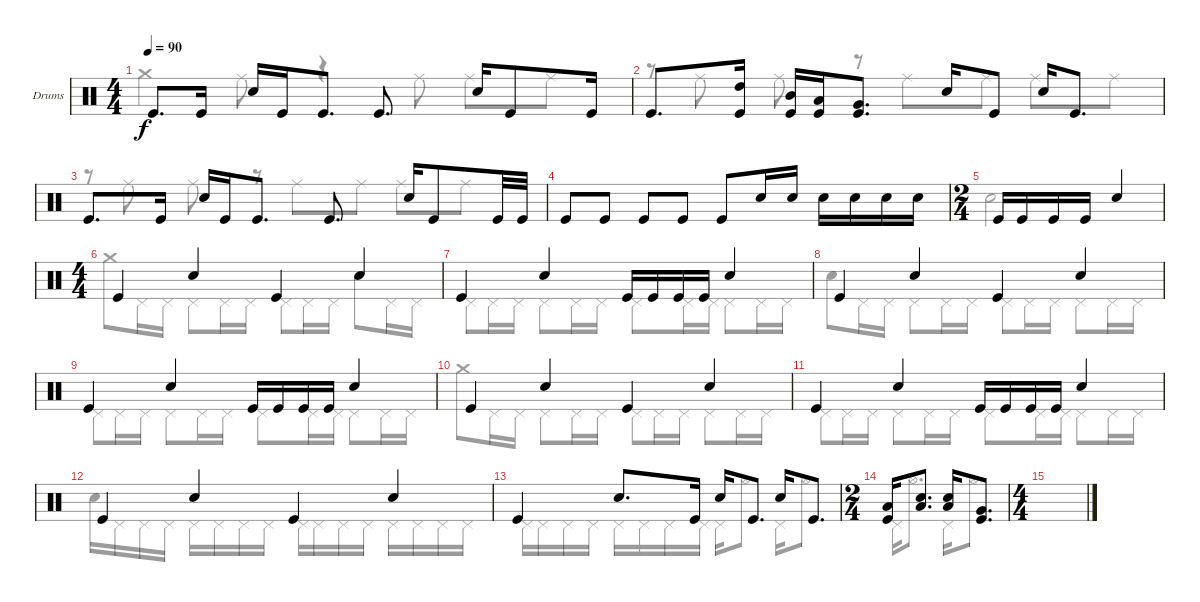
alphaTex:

\defaultSystemsLayout 4
\bracketExtendMode groupsimilarinstruments
\firstSystemTrackNameOrientation horizontal
\otherSystemsTrackNameOrientation horizontal
\track ("Drumkit" "Drums") {instrument percussion}
\staff {score}
\articulation defaults
\voice
\ts (4 4)
\tempo 90
\clef neutral
\ks c "Kick (hit)".8{d dy f} "Kick (hit)".16 "Snare (hit) 2".16 "Kick (hit)".16 "Kick (hit)".8{d} "Kick (hit)".8{d} "Snare (hit) 2".16 "Kick (hit)".8 "Kick (hit)".16
|
"Kick (hit)".8{d} ("Kick (hit)" "High Tom (hit)").16 ("Kick (hit)" "Mid Tom (hit)").16 ("Low Tom (hit)" "Kick (hit)").16 ("Kick (hit)" "Very Low Tom (hit)").8{d} "Snare (hit) 2".16 "Kick (hit)".8 "Snare (hit) 2".16 "Kick (hit)".8{d} |
"Kick (hit)".8{d} "Kick (hit)".16 "Snare (hit) 2".16 "Kick (hit)".16 "Kick (hit)".8{d} "Kick (hit)".8{d} "Snare (hit) 2".16 "Kick (hit)".8 "Kick (hit)".32 "Kick (hit)".32 |
"Kick (hit)".8 "Kick (hit)".8 "Kick (hit)".8 "Kick (hit)".8 "Kick (hit)".8 "Snare (hit) 2".16 "Snare (hit) 2".16 "Snare (hit) 2".16 "Snare (hit) 2".16 "Snare (hit) 2".16 "Snare (hit) 2".16 |
\ts (2 4)
"Kick (hit)".16 "Kick (hit)".16 "Kick (hit)".16 "Kick (hit)".16 "Snare (hit) 2".4 |
\ts (4 4)
"Kick (hit)".4 "Snare (hit) 2".4 "Kick (hit)".4 "Snare (hit) 2".4 |
"Kick (hit)".4 "Snare (hit) 2".4 "Kick (hit)".16 "Kick (hit)".16 "Kick (hit)".16 "Kick (hit)".16 "Snare (hit) 2".4 |
"Kick (hit)".4 "Snare (hit) 2".4 "Kick (hit)".4 "Snare (hit) 2".4 |
"Kick (hit)".4 "Snare (hit) 2".4 "Kick (hit)".16 "Kick (hit)".16 "Kick (hit)".16 "Kick (hit)".16 "Snare (hit) 2".4 |
"Kick (hit)".4 "Snare (hit) 2".4 "Kick (hit)".4 "Snare (hit) 2".4 |
"Kick (hit)".4 "Snare (hit) 2".4 "Kick (hit)".16 "Kick (hit)".16 "Kick (hit)".16 "Kick (hit)".16 "Snare (hit) 2".4 |
"Kick (hit)".4 "Snare (hit) 2".4 "Kick (hit)".4 "Snare (hit) 2".4 |
"Kick (hit)".4 "Snare (hit) 2".8{d} "Kick (hit)".16 "Snare (hit) 2".16 "Kick (hit)".8{d} "Snare (hit) 2".16 "Kick (hit)".8{d} |
\ts (2 4)
("Kick (hit)" "Low Tom (hit)").16 ("Low Tom (hit)" "Snare (hit) 2").8{d} ("Snare (hit) 2" "Low Tom (hit)").16 ("Kick (hit)" "Very Low Tom (hit)").8{d} |
\ts (4 4)
|
\voice
\clef neutral
\ottava regular
\simile none
\ks c "Crash medium (hit)".4{dy f} "Ride (middle)".8
r.4 "Ride (middle)".8 "Ride (middle)".8 "Ride (middle)".8 |
r.8 "Ride (middle)".8 "Ride (middle)".8 r.8 "Ride (middle)".8 "Ride (middle)".8 "Ride (middle)".8 "Ride (middle)".8 |
r.8 "Ride (middle)".8 "Ride (middle)".8 r.8 "Ride (middle)".8 "Ride (middle)".8 "Ride (middle)".8 "Ride (middle)".8 |
|
"Snare (hit) 2".2 |
"Crash medium (hit)".8 "Pedal Hi-Hat (hit)".16 "Pedal Hi-Hat (hit)".16 "Pedal Hi-Hat (hit)".8 "Pedal Hi-Hat (hit)".16 "Pedal Hi-Hat (hit)".16 "Pedal Hi-Hat (hit)".8 "Pedal Hi-Hat (hit)".16 "Pedal Hi-Hat (hit)".16 "Snare (hit) 2".8 "Pedal Hi-Hat (hit)".16 "Pedal Hi-Hat (hit)".16 |
"Pedal Hi-Hat (hit)".8 "Pedal Hi-Hat (hit)".16 "Pedal Hi-Hat (hit)".16 "Pedal Hi-Hat (hit)".8 "Pedal Hi-Hat (hit)".16 "Pedal Hi-Hat (hit)".16 "Pedal Hi-Hat (hit)".8 "Pedal Hi-Hat (hit)".16 "Pedal Hi-Hat (hit)".16 "Pedal Hi-Hat (hit)".8 "Pedal Hi-Hat (hit)".16 "Pedal Hi-Hat (hit)".16 |
"Snare (hit) 2".8 "Pedal Hi-Hat (hit)".16 "Pedal Hi-Hat (hit)".16 "Pedal Hi-Hat (hit)".8 "Pedal Hi-Hat (hit)".16 "Pedal Hi-Hat (hit)".16 "Pedal Hi-Hat (hit)".8 "Pedal Hi-Hat (hit)".16 "Pedal Hi-Hat (hit)".16 "Pedal Hi-Hat (hit)".8 "Pedal Hi-Hat (hit)".16 "Pedal Hi-Hat (hit)".16 |
"Pedal Hi-Hat (hit)".8 "Pedal Hi-Hat (hit)".16 "Pedal Hi-Hat (hit)".16 "Pedal Hi-Hat (hit)".8 "Pedal Hi-Hat (hit)".16 "Pedal Hi-Hat (hit)".16 "Pedal Hi-Hat (hit)".8 "Pedal Hi-Hat (hit)".16 "Pedal Hi-Hat (hit)".16 "Pedal Hi-Hat (hit)".8 "Pedal Hi-Hat (hit)".16 "Pedal Hi-Hat (hit)".16 |
"Crash medium (hit)".8 "Pedal Hi-Hat (hit)".16 "Pedal Hi-Hat (hit)".16 "Pedal Hi-Hat (hit)".8 "Pedal Hi-Hat (hit)".16 "Pedal Hi-Hat (hit)".16 "Pedal Hi-Hat (hit)".8 "Pedal Hi-Hat (hit)".16 "Pedal Hi-Hat (hit)".16 "Pedal Hi-Hat (hit)".8 "Pedal Hi-Hat (hit)".16 "Pedal Hi-Hat (hit)".16 |
"Pedal Hi-Hat (hit)".8 "Pedal Hi-Hat (hit)".16 "Pedal Hi-Hat (hit)".16 "Pedal Hi-Hat (hit)".8 "Pedal Hi-Hat (hit)".16 "Pedal Hi-Hat (hit)".16 "Pedal Hi-Hat (hit)".8 "Pedal Hi-Hat (hit)".16 "Pedal Hi-Hat (hit)".16 "Pedal Hi-Hat (hit)".8 "Pedal Hi-Hat (hit)".16 "Pedal Hi-Hat (hit)".16 |
"Snare (hit) 2".16 "Pedal Hi-Hat (hit)".16 "Pedal Hi-Hat (hit)".16 "Pedal Hi-Hat (hit)".16 "Pedal Hi-Hat (hit)".16 "Pedal Hi-Hat (hit)".16 "Pedal Hi-Hat (hit)".16 "Pedal Hi-Hat (hit)".16 "Pedal Hi-Hat (hit)".16 "Pedal Hi-Hat (hit)".16 "Pedal Hi-Hat (hit)".16 "Pedal Hi-Hat (hit)".16 "Pedal Hi-Hat (hit)".16 "Pedal Hi-Hat (hit)".16 "Pedal Hi-Hat (hit)".16 "Pedal Hi-Hat (hit)".16 |
"Pedal Hi-Hat (hit)".16 "Pedal Hi-Hat (hit)".16 "Pedal Hi-Hat (hit)".16 "Pedal Hi-Hat (hit)".16 "Pedal Hi-Hat (hit)".16 "Pedal Hi-Hat (hit)".16 "Pedal Hi-Hat (hit)".16 "Pedal Hi-Hat (hit)".16 "Pedal Hi-Hat (hit)".16 "Hi-Hat (open)".8{d} "Pedal Hi-Hat (hit)".16 "Hi-Hat (open)".8{d} |
"Pedal Hi-Hat (hit)".16 "Hi-Hat (open)".8{d} "Pedal Hi-Hat (hit)".16 "Hi-Hat (open)".8{d} |
|
